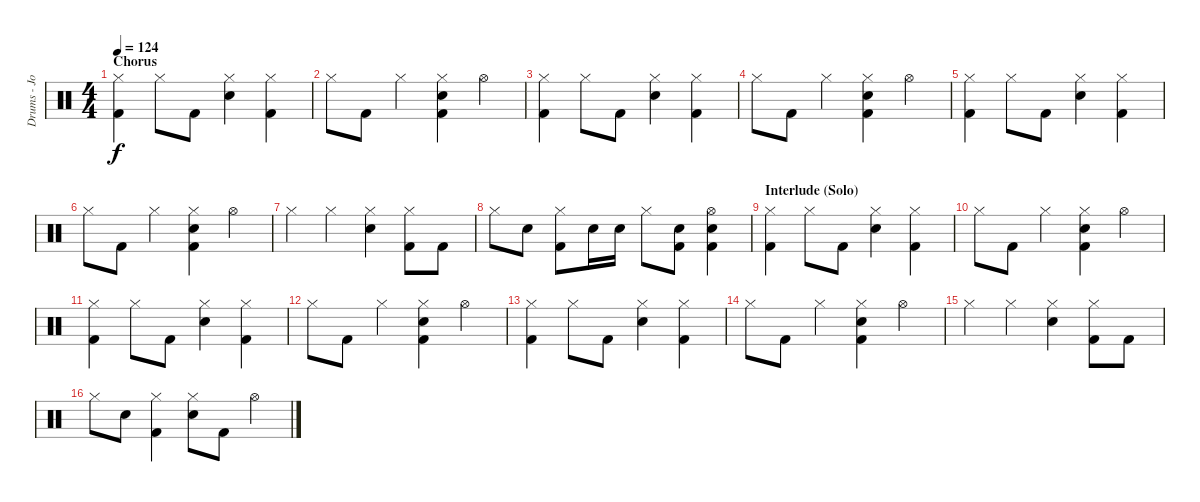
\track ("Drums - John Humphrey" "Drums - Jo") {instrument percussion}
\staff {score}
\articulation defaults
\ts (4 4)
\section ("" "Chorus")
\tempo 124
\clef neutral
\ks c
("Hi-Hat (closed)" "Kick (hit) 2").4{dy f} "Hi-Hat (closed)".8 "Kick (hit) 2".8 ("Hi-Hat (closed)" "Electric Snare (hit)").4 ("Hi-Hat (closed)" "Kick (hit) 2").4 |
"Hi-Hat (closed)".8 "Kick (hit) 2".8 "Hi-Hat (closed)".4 ("Hi-Hat (closed)" "Electric Snare (hit)" "Kick (hit) 2").4 "Hi-Hat (open)".4 |
("Hi-Hat (closed)" "Kick (hit) 2").4 "Hi-Hat (closed)".8 "Kick (hit) 2".8 ("Hi-Hat (closed)" "Electric Snare (hit)").4 ("Hi-Hat (closed)" "Kick (hit) 2").4 |
"Hi-Hat (closed)".8 "Kick (hit) 2".8 "Hi-Hat (closed)".4 ("Hi-Hat (closed)" "Electric Snare (hit)" "Kick (hit) 2").4 "Hi-Hat (open)".4 |
("Hi-Hat (closed)" "Kick (hit) 2").4 "Hi-Hat (closed)".8 "Kick (hit) 2".8 ("Hi-Hat (closed)" "Electric Snare (hit)").4 ("Hi-Hat (closed)" "Kick (hit) 2").4 |
"Hi-Hat (closed)".8 "Kick (hit) 2".8 "Hi-Hat (closed)".4 ("Hi-Hat (closed)" "Electric Snare (hit)" "Kick (hit) 2").4 "Hi-Hat (open)".4 |
"Hi-Hat (closed)".4 "Hi-Hat (closed)".4 ("Hi-Hat (closed)" "Electric Snare (hit)").4 ("Hi-Hat (closed)" "Kick (hit) 2").8 "Kick (hit) 2".8 |
"Hi-Hat (closed)".8 "Electric Snare (hit)".8 ("Hi-Hat (closed)" "Kick (hit) 2").8 "Electric Snare (hit)".16 "Electric Snare (hit)".16 "Hi-Hat (closed)".8 ("Electric Snare (hit)" "Kick (hit) 2").8 ("Hi-Hat (open)" "Electric Snare (hit)" "Kick (hit) 2").4 |
\section ("" "Interlude (Solo)")
("Hi-Hat (closed)" "Kick (hit) 2").4 "Hi-Hat (closed)".8 "Kick (hit) 2".8 ("Hi-Hat (closed)" "Electric Snare (hit)").4 ("Hi-Hat (closed)" "Kick (hit) 2").4 |
"Hi-Hat (closed)".8 "Kick (hit) 2".8 "Hi-Hat (closed)".4 ("Hi-Hat (closed)" "Electric Snare (hit)" "Kick (hit) 2").4 "Hi-Hat (open)".4 |
("Hi-Hat (closed)" "Kick (hit) 2").4 "Hi-Hat (closed)".8 "Kick (hit) 2".8 ("Hi-Hat (closed)" "Electric Snare (hit)").4 ("Hi-Hat (closed)" "Kick (hit) 2").4 |
"Hi-Hat (closed)".8 "Kick (hit) 2".8 "Hi-Hat (closed)".4 ("Hi-Hat (closed)" "Electric Snare (hit)" "Kick (hit) 2").4 "Hi-Hat (open)".4 |
("Hi-Hat (closed)" "Kick (hit) 2").4 "Hi-Hat (closed)".8 "Kick (hit) 2".8 ("Hi-Hat (closed)" "Electric Snare (hit)").4 ("Hi-Hat (closed)" "Kick (hit) 2").4 |
"Hi-Hat (closed)".8 "Kick (hit) 2".8 "Hi-Hat (closed)".4 ("Hi-Hat (closed)" "Electric Snare (hit)" "Kick (hit) 2").4 "Hi-Hat (open)".4 |
"Hi-Hat (closed)".4 "Hi-Hat (closed)".4 ("Hi-Hat (closed)" "Electric Snare (hit)").4 ("Hi-Hat (closed)" "Kick (hit) 2").8 "Kick (hit) 2".8 |
"Hi-Hat (closed)".8 "Electric Snare (hit)".8 ("Hi-Hat (closed)" "Kick (hit) 2").4 ("Hi-Hat (closed)" "Electric Snare (hit)").8 "Kick (hit) 2".8 "Hi-Hat (open)".4
